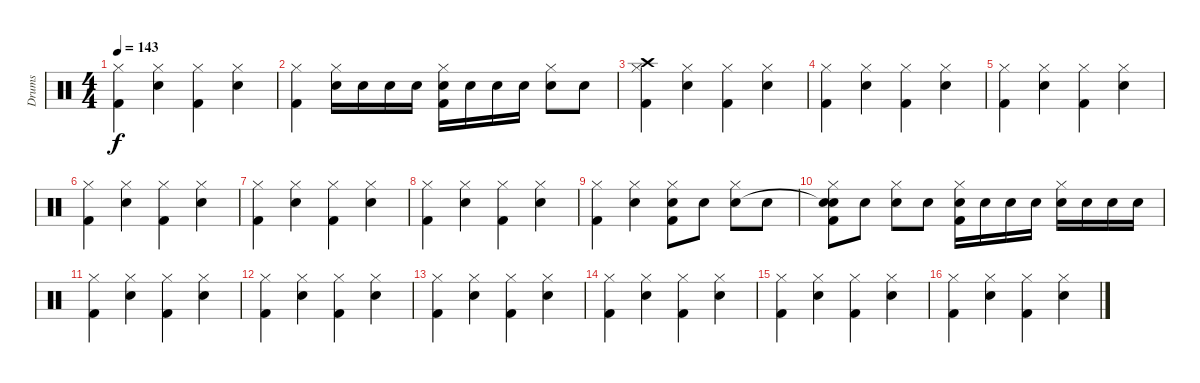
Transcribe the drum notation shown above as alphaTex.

\track ("Drums" "Drums") {instrument percussion}
\staff {score}
\articulation defaults
\ts (4 4)
\tempo 143
\clef neutral
\ks c
("Hi-Hat (closed)" "Kick (hit) 2").4{dy f} ("Hi-Hat (closed)" "Electric Snare (hit)").4 ("Hi-Hat (closed)" "Kick (hit) 2").4 ("Hi-Hat (closed)" "Electric Snare (hit)").4 |
("Hi-Hat (closed)" "Kick (hit) 2").4 ("Hi-Hat (closed)" "Electric Snare (hit)").16 "Electric Snare (hit)".16 "Electric Snare (hit)".16 "Electric Snare (hit)".16 ("Hi-Hat (closed)" "Electric Snare (hit)" "Kick (hit) 2").16 "Electric Snare (hit)".16 "Electric Snare (hit)".16 "Electric Snare (hit)".16 ("Hi-Hat (closed)" "Electric Snare (hit)").8 "Electric Snare (hit)".8 |
("Hi-Hat (closed)" "Crash high (hit)" "Kick (hit) 2").4 ("Hi-Hat (closed)" "Electric Snare (hit)").4 ("Hi-Hat (closed)" "Kick (hit) 2").4 ("Hi-Hat (closed)" "Electric Snare (hit)").4 |
("Hi-Hat (closed)" "Kick (hit) 2").4 ("Hi-Hat (closed)" "Electric Snare (hit)").4 ("Hi-Hat (closed)" "Kick (hit) 2").4 ("Hi-Hat (closed)" "Electric Snare (hit)").4 |
("Hi-Hat (closed)" "Kick (hit) 2").4 ("Hi-Hat (closed)" "Electric Snare (hit)").4 ("Hi-Hat (closed)" "Kick (hit) 2").4 ("Hi-Hat (closed)" "Electric Snare (hit)").4 |
("Hi-Hat (closed)" "Kick (hit) 2").4 ("Hi-Hat (closed)" "Electric Snare (hit)").4 ("Hi-Hat (closed)" "Kick (hit) 2").4 ("Hi-Hat (closed)" "Electric Snare (hit)").4 |
("Hi-Hat (closed)" "Kick (hit) 2").4 ("Hi-Hat (closed)" "Electric Snare (hit)").4 ("Hi-Hat (closed)" "Kick (hit) 2").4 ("Hi-Hat (closed)" "Electric Snare (hit)").4 |
("Hi-Hat (closed)" "Kick (hit) 2").4 ("Hi-Hat (closed)" "Electric Snare (hit)").4 ("Hi-Hat (closed)" "Kick (hit) 2").4 ("Hi-Hat (closed)" "Electric Snare (hit)").4 |
("Hi-Hat (closed)" "Kick (hit) 2").4 ("Hi-Hat (closed)" "Electric Snare (hit)").4 ("Hi-Hat (closed)" "Electric Snare (hit)" "Kick (hit) 2").8 "Electric Snare (hit)".8 ("Hi-Hat (closed)" "Electric Snare (hit)").8 "Electric Snare (hit)".8 |
("Hi-Hat (closed)" "Snare (hit)"{t} "Electric Snare (hit)" "Kick (hit) 2").8 "Electric Snare (hit)".8 ("Hi-Hat (closed)" "Electric Snare (hit)").8 "Electric Snare (hit)".8 ("Hi-Hat (closed)" "Electric Snare (hit)" "Kick (hit) 2").16 "Electric Snare (hit)".16 "Electric Snare (hit)".16 "Electric Snare (hit)".16 ("Hi-Hat (closed)" "Electric Snare (hit)").16 "Electric Snare (hit)".16 "Electric Snare (hit)".16 "Electric Snare (hit)".16 |
("Hi-Hat (closed)" "Kick (hit) 2").4 ("Hi-Hat (closed)" "Electric Snare (hit)").4 ("Hi-Hat (closed)" "Kick (hit) 2").4 ("Hi-Hat (closed)" "Electric Snare (hit)").4 |
("Hi-Hat (closed)" "Kick (hit) 2").4 ("Hi-Hat (closed)" "Electric Snare (hit)").4 ("Hi-Hat (closed)" "Kick (hit) 2").4 ("Hi-Hat (closed)" "Electric Snare (hit)").4 |
("Hi-Hat (closed)" "Kick (hit) 2").4 ("Hi-Hat (closed)" "Electric Snare (hit)").4 ("Hi-Hat (closed)" "Kick (hit) 2").4 ("Hi-Hat (closed)" "Electric Snare (hit)").4 |
("Hi-Hat (closed)" "Kick (hit) 2").4 ("Hi-Hat (closed)" "Electric Snare (hit)").4 ("Hi-Hat (closed)" "Kick (hit) 2").4 ("Hi-Hat (closed)" "Electric Snare (hit)").4 |
("Hi-Hat (closed)" "Kick (hit) 2").4 ("Hi-Hat (closed)" "Electric Snare (hit)").4 ("Hi-Hat (closed)" "Kick (hit) 2").4 ("Hi-Hat (closed)" "Electric Snare (hit)").4 |
("Hi-Hat (closed)" "Kick (hit) 2").4 ("Hi-Hat (closed)" "Electric Snare (hit)").4 ("Hi-Hat (closed)" "Kick (hit) 2").4 ("Hi-Hat (closed)" "Electric Snare (hit)").4
